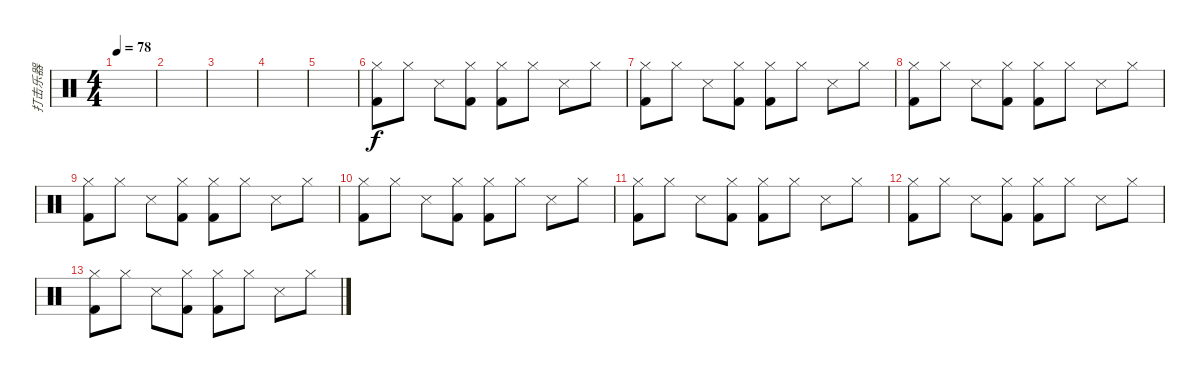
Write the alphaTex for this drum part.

\track ("打击乐器" "打击乐器") {instrument percussion}
\staff {score}
\articulation defaults
\ts (4 4)
\tempo 78
\clef neutral
\ks c
|
|
|
|
|
("Hi-Hat (closed)" "Kick (hit) 2").8 "Hi-Hat (closed)".8 "Snare (side stick) 3".8 ("Hi-Hat (closed)" "Kick (hit) 2").8 ("Hi-Hat (closed)" "Kick (hit) 2").8 "Hi-Hat (closed)".8 "Snare (side stick) 3".8 "Hi-Hat (closed)".8 |
("Hi-Hat (closed)" "Kick (hit) 2").8 "Hi-Hat (closed)".8 "Snare (side stick) 3".8 ("Hi-Hat (closed)" "Kick (hit) 2").8 ("Hi-Hat (closed)" "Kick (hit) 2").8 "Hi-Hat (closed)".8 "Snare (side stick) 3".8 "Hi-Hat (closed)".8 |
("Hi-Hat (closed)" "Kick (hit) 2").8 "Hi-Hat (closed)".8 "Snare (side stick) 3".8 ("Hi-Hat (closed)" "Kick (hit) 2").8 ("Hi-Hat (closed)" "Kick (hit) 2").8 "Hi-Hat (closed)".8 "Snare (side stick) 3".8 "Hi-Hat (closed)".8 |
("Hi-Hat (closed)" "Kick (hit) 2").8 "Hi-Hat (closed)".8 "Snare (side stick) 3".8 ("Hi-Hat (closed)" "Kick (hit) 2").8 ("Hi-Hat (closed)" "Kick (hit) 2").8 "Hi-Hat (closed)".8 "Snare (side stick) 3".8 "Hi-Hat (closed)".8 |
("Hi-Hat (closed)" "Kick (hit) 2").8 "Hi-Hat (closed)".8 "Snare (side stick) 3".8 ("Hi-Hat (closed)" "Kick (hit) 2").8 ("Hi-Hat (closed)" "Kick (hit) 2").8 "Hi-Hat (closed)".8 "Snare (side stick) 3".8 "Hi-Hat (closed)".8 |
("Hi-Hat (closed)" "Kick (hit) 2").8 "Hi-Hat (closed)".8 "Snare (side stick) 3".8 ("Hi-Hat (closed)" "Kick (hit) 2").8 ("Hi-Hat (closed)" "Kick (hit) 2").8 "Hi-Hat (closed)".8 "Snare (side stick) 3".8 "Hi-Hat (closed)".8 |
("Hi-Hat (closed)" "Kick (hit) 2").8 "Hi-Hat (closed)".8 "Snare (side stick) 3".8 ("Hi-Hat (closed)" "Kick (hit) 2").8 ("Hi-Hat (closed)" "Kick (hit) 2").8 "Hi-Hat (closed)".8 "Snare (side stick) 3".8 "Hi-Hat (closed)".8 |
("Hi-Hat (closed)" "Kick (hit) 2").8 "Hi-Hat (closed)".8 "Snare (side stick) 3".8 ("Hi-Hat (closed)" "Kick (hit) 2").8 ("Hi-Hat (closed)" "Kick (hit) 2").8 "Hi-Hat (closed)".8 "Snare (side stick) 3".8 "Hi-Hat (closed)".8
